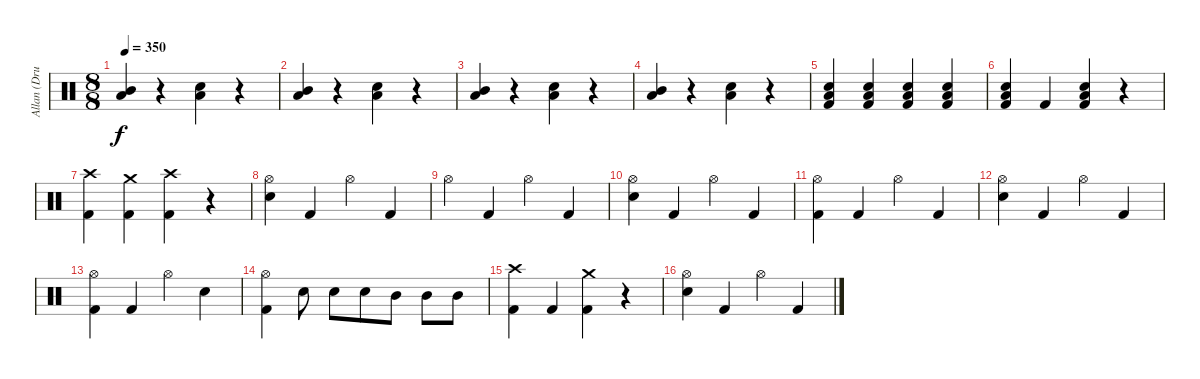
\track ("Allan (Drums)" "Allan (Dru") {solo instrument percussion}
\staff {score}
\articulation defaults
\ts (8 8)
\tempo 350
\clef neutral
\ks c
("Low Tom (hit)" "Mid Tom (hit)").4{dy f} r.4 ("Low Tom (hit)" "Snare (hit) 2").4 r.4 |
("Low Tom (hit)" "Mid Tom (hit)").4 r.4 ("Low Tom (hit)" "Snare (hit) 2").4 r.4 |
("Low Tom (hit)" "Mid Tom (hit)").4 r.4 ("Low Tom (hit)" "Snare (hit) 2").4 r.4 |
("Low Tom (hit)" "Mid Tom (hit)").4 r.4 ("Low Tom (hit)" "Snare (hit) 2").4 r.4 |
("Kick (hit) 2" "Low Tom (hit)" "Snare (hit) 2").4 ("Kick (hit) 2" "Low Tom (hit)" "Snare (hit) 2").4 ("Kick (hit) 2" "Low Tom (hit)" "Snare (hit) 2").4 ("Kick (hit) 2" "Low Tom (hit)" "Snare (hit) 2").4 |
("Kick (hit) 2" "Low Tom (hit)" "Snare (hit) 2").4 "Kick (hit) 2".4 ("Kick (hit) 2" "Low Tom (hit)" "Snare (hit) 2").4 r.4 |
("Crash high (hit)" "Kick (hit) 2").4 ("Crash medium (hit)" "Kick (hit) 2").4 ("Crash high (hit)" "Kick (hit) 2").4 r.4 |
("Hi-Hat (open)" "Snare (hit) 2").4 "Kick (hit) 2".4 "Hi-Hat (open)".4 "Kick (hit) 2".4 |
"Hi-Hat (open)".4 "Kick (hit) 2".4 "Hi-Hat (open)".4 "Kick (hit) 2".4 |
("Hi-Hat (open)" "Snare (hit) 2").4 "Kick (hit) 2".4 "Hi-Hat (open)".4 "Kick (hit) 2".4 |
("Hi-Hat (open)" "Kick (hit) 2").4 "Kick (hit) 2".4 "Hi-Hat (open)".4 "Kick (hit) 2".4 |
("Hi-Hat (open)" "Snare (hit) 2").4 "Kick (hit) 2".4 "Hi-Hat (open)".4 "Kick (hit) 2".4 |
("Hi-Hat (open)" "Kick (hit) 2").4 "Kick (hit) 2".4 "Hi-Hat (open)".4 "Snare (hit) 2".4 |
("Hi-Hat (open)" "Kick (hit) 2").4 "Snare (hit) 2".8 "Snare (hit) 2".8 "Snare (hit) 2".8 "Mid Tom (hit)".8 "Mid Tom (hit)".8 "Mid Tom (hit)".8 |
("Crash high (hit)" "Kick (hit) 2").4 "Kick (hit) 2".4 ("Crash medium (hit)" "Kick (hit) 2").4 r.4 |
("Hi-Hat (open)" "Snare (hit) 2").4 "Kick (hit) 2".4 "Hi-Hat (open)".4 "Kick (hit) 2".4
